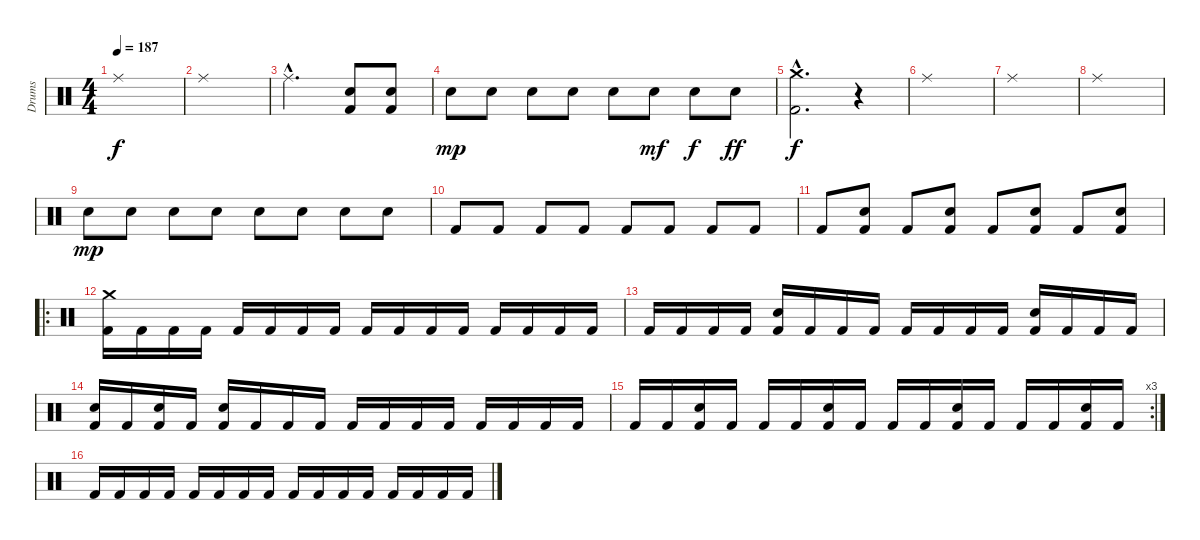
\track ("Drums" "Drums") {instrument percussion}
\staff {score}
\articulation defaults
\ts (4 4)
\tempo 187
\clef neutral
\ks c "Ride (middle)".1{dy f}
|
"Ride (middle)".1 |
"Ride (middle)"{hac}.2{d} ("Snare (hit) 2" "Kick (hit) 2").8 ("Snare (hit) 2" "Kick (hit) 2").8 |
"Snare (hit) 2".8{dy mp} "Snare (hit) 2".8 "Snare (hit) 2".8 "Snare (hit) 2".8 "Snare (hit) 2".8 "Snare (hit) 2".8{dy mf} "Snare (hit) 2".8{dy f} "Snare (hit) 2".8{dy ff} |
("Crash medium (hit)"{hac} "Kick (hit) 2"{hac}).2{d dy f} r.4 |
"Ride (middle)".1 |
"Ride (middle)".1 |
"Ride (middle)".1 |
"Snare (hit) 2".8{dy mp} "Snare (hit) 2".8 "Snare (hit) 2".8 "Snare (hit) 2".8 "Snare (hit) 2".8 "Snare (hit) 2".8 "Snare (hit) 2".8 "Snare (hit) 2".8 |
"Kick (hit) 2".8 "Kick (hit) 2".8 "Kick (hit) 2".8 "Kick (hit) 2".8 "Kick (hit) 2".8 "Kick (hit) 2".8 "Kick (hit) 2".8 "Kick (hit) 2".8 |
"Kick (hit) 2".8 ("Snare (hit) 2" "Kick (hit) 2").8 "Kick (hit) 2".8 ("Snare (hit) 2" "Kick (hit) 2").8 "Kick (hit) 2".8 ("Snare (hit) 2" "Kick (hit) 2").8 "Kick (hit) 2".8 ("Snare (hit) 2" "Kick (hit) 2").8 |
\ro
("Crash medium (hit)" "Kick (hit) 2").16 "Kick (hit) 2".16 "Kick (hit) 2".16 "Kick (hit) 2".16 "Kick (hit) 2".16 "Kick (hit) 2".16 "Kick (hit) 2".16 "Kick (hit) 2".16 "Kick (hit) 2".16 "Kick (hit) 2".16 "Kick (hit) 2".16 "Kick (hit) 2".16 "Kick (hit) 2".16 "Kick (hit) 2".16 "Kick (hit) 2".16 "Kick (hit) 2".16 |
"Kick (hit) 2".16 "Kick (hit) 2".16 "Kick (hit) 2".16 "Kick (hit) 2".16 ("Snare (hit) 2" "Kick (hit) 2").16 "Kick (hit) 2".16 "Kick (hit) 2".16 "Kick (hit) 2".16 "Kick (hit) 2".16 "Kick (hit) 2".16 "Kick (hit) 2".16 "Kick (hit) 2".16 ("Snare (hit) 2" "Kick (hit) 2").16 "Kick (hit) 2".16 "Kick (hit) 2".16 "Kick (hit) 2".16 |
("Snare (hit) 2" "Kick (hit) 2").16 "Kick (hit) 2".16 ("Snare (hit) 2" "Kick (hit) 2").16 "Kick (hit) 2".16 ("Snare (hit) 2" "Kick (hit) 2").16 "Kick (hit) 2".16 "Kick (hit) 2".16 "Kick (hit) 2".16 "Kick (hit) 2".16 "Kick (hit) 2".16 "Kick (hit) 2".16 "Kick (hit) 2".16 "Kick (hit) 2".16 "Kick (hit) 2".16 "Kick (hit) 2".16 "Kick (hit) 2".16 |
\rc 3 "Kick (hit) 2".16 "Kick (hit) 2".16
("Snare (hit) 2" "Kick (hit) 2").16 "Kick (hit) 2".16 "Kick (hit) 2".16 "Kick (hit) 2".16 ("Snare (hit) 2" "Kick (hit) 2").16 "Kick (hit) 2".16 "Kick (hit) 2".16 "Kick (hit) 2".16 ("Snare (hit) 2" "Kick (hit) 2").16 "Kick (hit) 2".16 "Kick (hit) 2".16 "Kick (hit) 2".16 ("Snare (hit) 2" "Kick (hit) 2").16 "Kick (hit) 2".16 |
"Kick (hit) 2".16 "Kick (hit) 2".16 "Kick (hit) 2".16 "Kick (hit) 2".16 "Kick (hit) 2".16 "Kick (hit) 2".16 "Kick (hit) 2".16 "Kick (hit) 2".16 "Kick (hit) 2".16 "Kick (hit) 2".16 "Kick (hit) 2".16 "Kick (hit) 2".16 "Kick (hit) 2".16 "Kick (hit) 2".16 "Kick (hit) 2".16 "Kick (hit) 2".16
